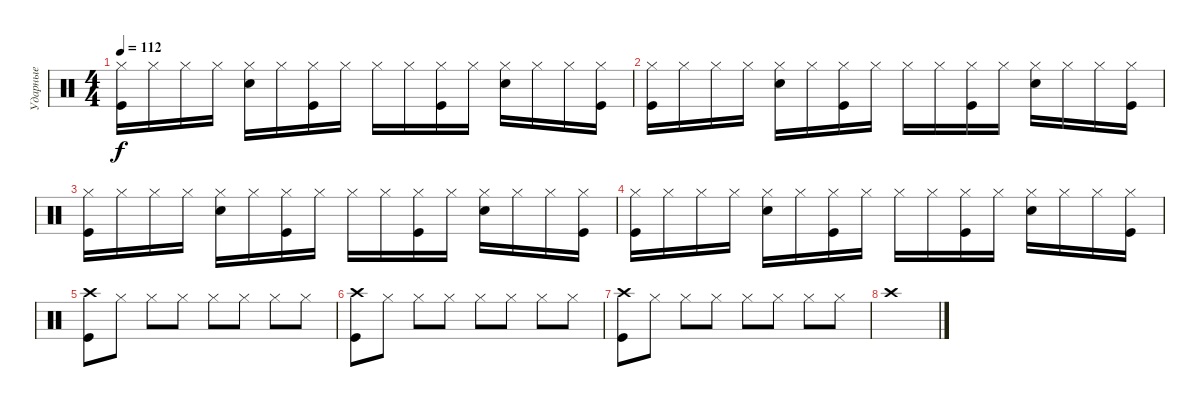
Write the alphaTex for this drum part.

\track ("Ударные" "Ударные") {instrument percussion}
\staff {score}
\articulation defaults
\ts (4 4)
\tempo 112
\clef neutral
\ks c
("Hi-Hat (closed)" "Kick (hit)").16{dy f} "Hi-Hat (closed)".16 "Hi-Hat (closed)".16 "Hi-Hat (closed)".16 ("Hi-Hat (closed)" "Electric Snare (hit)").16 "Hi-Hat (closed)".16 ("Hi-Hat (closed)" "Kick (hit)").16 "Hi-Hat (closed)".16 "Hi-Hat (closed)".16 "Hi-Hat (closed)".16 ("Hi-Hat (closed)" "Kick (hit)").16 "Hi-Hat (closed)".16 ("Hi-Hat (closed)" "Electric Snare (hit)").16 "Hi-Hat (closed)".16 "Hi-Hat (closed)".16 ("Hi-Hat (closed)" "Kick (hit)").16 |
("Hi-Hat (closed)" "Kick (hit)").16 "Hi-Hat (closed)".16 "Hi-Hat (closed)".16 "Hi-Hat (closed)".16 ("Hi-Hat (closed)" "Electric Snare (hit)").16 "Hi-Hat (closed)".16 ("Hi-Hat (closed)" "Kick (hit)").16 "Hi-Hat (closed)".16 "Hi-Hat (closed)".16 "Hi-Hat (closed)".16 ("Hi-Hat (closed)" "Kick (hit)").16 "Hi-Hat (closed)".16 ("Hi-Hat (closed)" "Electric Snare (hit)").16 "Hi-Hat (closed)".16 "Hi-Hat (closed)".16 ("Hi-Hat (closed)" "Kick (hit)").16 |
("Hi-Hat (closed)" "Kick (hit)").16 "Hi-Hat (closed)".16 "Hi-Hat (closed)".16 "Hi-Hat (closed)".16 ("Hi-Hat (closed)" "Electric Snare (hit)").16 "Hi-Hat (closed)".16 ("Hi-Hat (closed)" "Kick (hit)").16 "Hi-Hat (closed)".16 "Hi-Hat (closed)".16 "Hi-Hat (closed)".16 ("Hi-Hat (closed)" "Kick (hit)").16 "Hi-Hat (closed)".16 ("Hi-Hat (closed)" "Electric Snare (hit)").16 "Hi-Hat (closed)".16 "Hi-Hat (closed)".16 ("Hi-Hat (closed)" "Kick (hit)").16 |
("Hi-Hat (closed)" "Kick (hit)").16 "Hi-Hat (closed)".16 "Hi-Hat (closed)".16 "Hi-Hat (closed)".16 ("Hi-Hat (closed)" "Electric Snare (hit)").16 "Hi-Hat (closed)".16 ("Hi-Hat (closed)" "Kick (hit)").16 "Hi-Hat (closed)".16 "Hi-Hat (closed)".16 "Hi-Hat (closed)".16 ("Hi-Hat (closed)" "Kick (hit)").16 "Hi-Hat (closed)".16 ("Hi-Hat (closed)" "Electric Snare (hit)").16 "Hi-Hat (closed)".16 "Hi-Hat (closed)".16 ("Hi-Hat (closed)" "Kick (hit)").16 |
("Crash high (hit)" "Kick (hit)").8 "Hi-Hat (closed)".8 "Hi-Hat (closed)".8 "Hi-Hat (closed)".8 "Hi-Hat (closed)".8 "Hi-Hat (closed)".8 "Hi-Hat (closed)".8 "Hi-Hat (closed)".8 |
("Crash high (hit)" "Kick (hit)").8 "Hi-Hat (closed)".8 "Hi-Hat (closed)".8 "Hi-Hat (closed)".8 "Hi-Hat (closed)".8 "Hi-Hat (closed)".8 "Hi-Hat (closed)".8 "Hi-Hat (closed)".8 |
("Crash high (hit)" "Kick (hit)").8 "Hi-Hat (closed)".8 "Hi-Hat (closed)".8 "Hi-Hat (closed)".8 "Hi-Hat (closed)".8 "Hi-Hat (closed)".8 "Hi-Hat (closed)".8 "Hi-Hat (closed)".8 |
"Crash high (hit)".1
